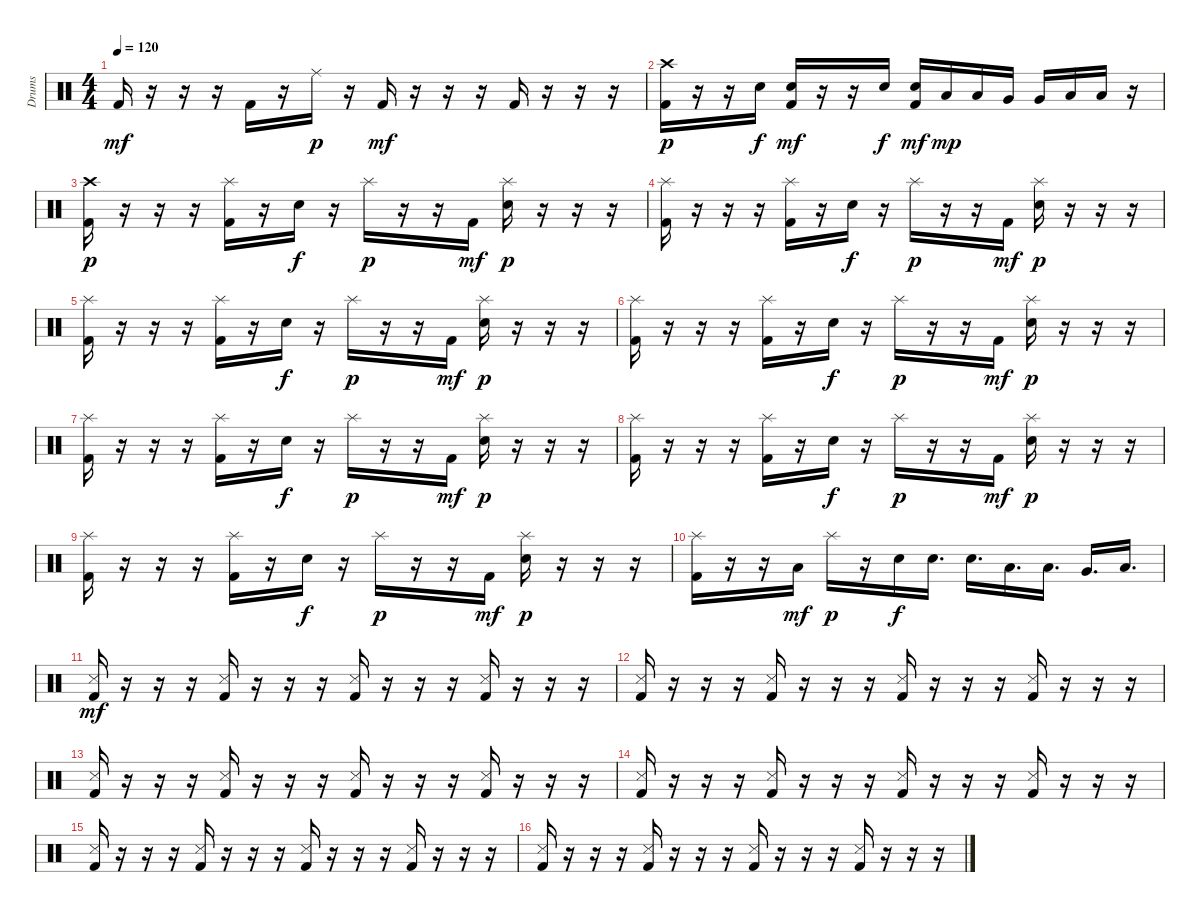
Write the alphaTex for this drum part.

\track ("Drums" "Drums") {instrument percussion}
\staff {score}
\articulation defaults
\ts (4 4)
\tempo 120
\clef neutral
\ks c "Kick (hit) 2".16{dy mf}
r.16 r.16 r.16 "Kick (hit) 2".16 r.16 "Ride (middle)".16{dy p} r.16 "Kick (hit) 2".16{dy mf} r.16 r.16 r.16 "Kick (hit) 2".16 r.16 r.16 r.16 |
("Kick (hit) 2" "Crash high (hit)").16{dy p} r.16 r.16 "Snare (hit) 2".16{dy f} ("Kick (hit) 2" "Snare (hit) 2").16{dy mf} r.16 r.16 "Snare (hit) 2".16{dy f} ("Kick (hit) 2" "Snare (hit) 2").16{dy mf} "Low Tom (hit)".16{dy mp} "Low Tom (hit)".16 "Very Low Tom (hit)".16 "Very Low Tom (hit)".16 "Low Floor Tom (hit)".16 "Low Floor Tom (hit)".16 r.16 |
("Kick (hit) 2" "Crash high (hit)").16{dy p} r.16 r.16 r.16 ("Kick (hit) 2" "Splash (hit)").16 r.16 "Snare (hit) 2".16{dy f} r.16 "Splash (hit)".16{dy p} r.16 r.16 "Kick (hit) 2".16{dy mf} ("Splash (hit)" "Snare (hit) 2").16{dy p} r.16 r.16 r.16 |
("Kick (hit) 2" "Splash (hit)").16 r.16 r.16 r.16 ("Kick (hit) 2" "Splash (hit)").16 r.16 "Snare (hit) 2".16{dy f} r.16 "Splash (hit)".16{dy p} r.16 r.16 "Kick (hit) 2".16{dy mf} ("Splash (hit)" "Snare (hit) 2").16{dy p} r.16 r.16 r.16 |
("Kick (hit) 2" "Splash (hit)").16 r.16 r.16 r.16 ("Kick (hit) 2" "Splash (hit)").16 r.16 "Snare (hit) 2".16{dy f} r.16 "Splash (hit)".16{dy p} r.16 r.16 "Kick (hit) 2".16{dy mf} ("Splash (hit)" "Snare (hit) 2").16{dy p} r.16 r.16 r.16 |
("Kick (hit) 2" "Splash (hit)").16 r.16 r.16 r.16 ("Kick (hit) 2" "Splash (hit)").16 r.16 "Snare (hit) 2".16{dy f} r.16 "Splash (hit)".16{dy p} r.16 r.16 "Kick (hit) 2".16{dy mf} ("Splash (hit)" "Snare (hit) 2").16{dy p} r.16 r.16 r.16 |
("Kick (hit) 2" "Splash (hit)").16 r.16 r.16 r.16 ("Kick (hit) 2" "Splash (hit)").16 r.16 "Snare (hit) 2".16{dy f} r.16 "Splash (hit)".16{dy p} r.16 r.16 "Kick (hit) 2".16{dy mf} ("Splash (hit)" "Snare (hit) 2").16{dy p} r.16 r.16 r.16 |
("Kick (hit) 2" "Splash (hit)").16 r.16 r.16 r.16 ("Kick (hit) 2" "Splash (hit)").16 r.16 "Snare (hit) 2".16{dy f} r.16 "Splash (hit)".16{dy p} r.16 r.16 "Kick (hit) 2".16{dy mf} ("Splash (hit)" "Snare (hit) 2").16{dy p} r.16 r.16 r.16 |
("Kick (hit) 2" "Splash (hit)").16 r.16 r.16 r.16 ("Kick (hit) 2" "Splash (hit)").16 r.16 "Snare (hit) 2".16{dy f} r.16 "Splash (hit)".16{dy p} r.16 r.16 "Kick (hit) 2".16{dy mf} ("Splash (hit)" "Snare (hit) 2").16{dy p} r.16 r.16 r.16 |
("Kick (hit) 2" "Splash (hit)").16 r.16 r.16 "Low Tom (hit)".16{dy mf} "Splash (hit)".16{dy p} r.16 "Snare (hit) 2".16{dy f} "Snare (hit) 2".16{d} "Snare (hit) 2".16{d} "Low Tom (hit)".16{d} "Low Tom (hit)".16{d} "Very Low Tom (hit)".16{d} "Low Floor Tom (hit)".16{d} |
("Kick (hit) 2" "Snare (side stick) 3").16{dy mf} r.16 r.16 r.16 ("Kick (hit) 2" "Snare (side stick) 3").16 r.16 r.16 r.16 ("Kick (hit) 2" "Snare (side stick) 3").16 r.16 r.16 r.16 ("Kick (hit) 2" "Snare (side stick) 3").16 r.16 r.16 r.16 |
("Kick (hit) 2" "Snare (side stick) 3").16 r.16 r.16 r.16 ("Kick (hit) 2" "Snare (side stick) 3").16 r.16 r.16 r.16 ("Kick (hit) 2" "Snare (side stick) 3").16 r.16 r.16 r.16 ("Kick (hit) 2" "Snare (side stick) 3").16 r.16 r.16 r.16 |
("Kick (hit) 2" "Snare (side stick) 3").16 r.16 r.16 r.16 ("Kick (hit) 2" "Snare (side stick) 3").16 r.16 r.16 r.16 ("Kick (hit) 2" "Snare (side stick) 3").16 r.16 r.16 r.16 ("Kick (hit) 2" "Snare (side stick) 3").16 r.16 r.16 r.16 |
("Kick (hit) 2" "Snare (side stick) 3").16 r.16 r.16 r.16 ("Kick (hit) 2" "Snare (side stick) 3").16 r.16 r.16 r.16 ("Kick (hit) 2" "Snare (side stick) 3").16 r.16 r.16 r.16 ("Kick (hit) 2" "Snare (side stick) 3").16 r.16 r.16 r.16 |
("Kick (hit) 2" "Snare (side stick) 3").16 r.16 r.16 r.16 ("Kick (hit) 2" "Snare (side stick) 3").16 r.16 r.16 r.16 ("Kick (hit) 2" "Snare (side stick) 3").16 r.16 r.16 r.16 ("Kick (hit) 2" "Snare (side stick) 3").16 r.16 r.16 r.16 |
("Kick (hit) 2" "Snare (side stick) 3").16 r.16 r.16 r.16 ("Kick (hit) 2" "Snare (side stick) 3").16 r.16 r.16 r.16 ("Kick (hit) 2" "Snare (side stick) 3").16 r.16 r.16 r.16 ("Kick (hit) 2" "Snare (side stick) 3").16 r.16 r.16 r.16
